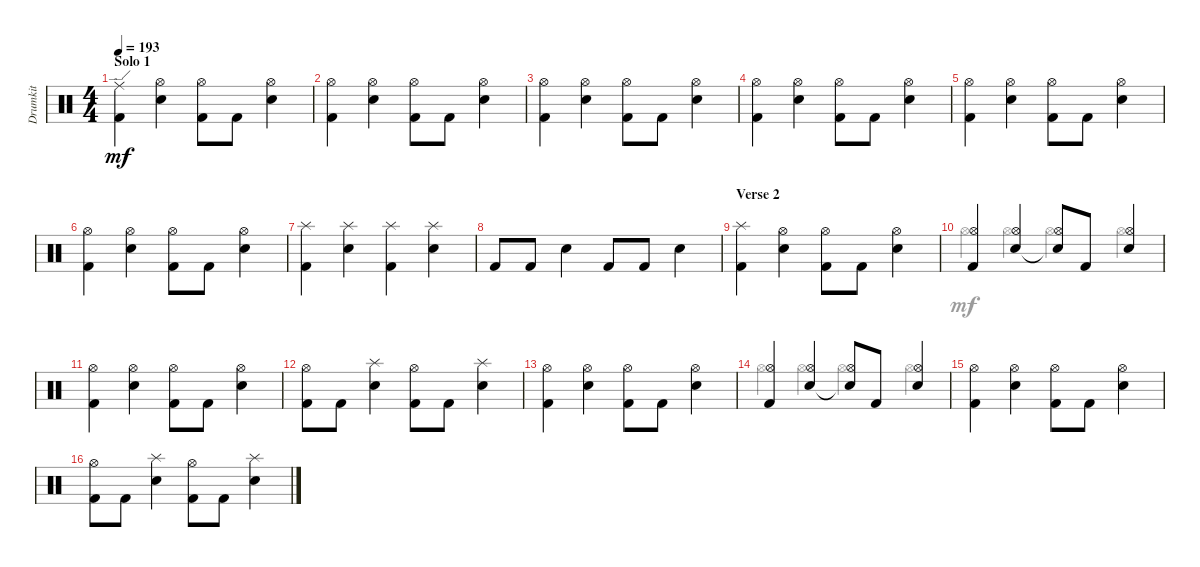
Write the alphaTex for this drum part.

\track ("Drumkit" "Drumkit") {instrument percussion}
\staff {score}
\articulation defaults
\voice
\ts (4 4)
\section ("" "Solo 1")
\tempo 193
\clef neutral
\ks c
("Kick (hit) 2" "Ride (edge)").4{dy mf} ("Snare (hit) 2" "Hi-Hat (open)").4 ("Kick (hit) 2" "Hi-Hat (open)").8 "Kick (hit) 2".8 ("Snare (hit) 2" "Hi-Hat (open)").4 |
("Kick (hit) 2" "Hi-Hat (open)").4 ("Snare (hit) 2" "Hi-Hat (open)").4 ("Kick (hit) 2" "Hi-Hat (open)").8 "Kick (hit) 2".8 ("Snare (hit) 2" "Hi-Hat (open)").4 |
("Kick (hit) 2" "Hi-Hat (open)").4 ("Snare (hit) 2" "Hi-Hat (open)").4 ("Kick (hit) 2" "Hi-Hat (open)").8 "Kick (hit) 2".8 ("Snare (hit) 2" "Hi-Hat (open)").4 |
("Kick (hit) 2" "Hi-Hat (open)").4 ("Snare (hit) 2" "Hi-Hat (open)").4 ("Kick (hit) 2" "Hi-Hat (open)").8 "Kick (hit) 2".8 ("Snare (hit) 2" "Hi-Hat (open)").4 |
("Kick (hit) 2" "Hi-Hat (open)").4 ("Snare (hit) 2" "Hi-Hat (open)").4 ("Kick (hit) 2" "Hi-Hat (open)").8 "Kick (hit) 2".8 ("Snare (hit) 2" "Hi-Hat (open)").4 |
("Kick (hit) 2" "Hi-Hat (open)").4 ("Snare (hit) 2" "Hi-Hat (open)").4 ("Kick (hit) 2" "Hi-Hat (open)").8 "Kick (hit) 2".8 ("Snare (hit) 2" "Hi-Hat (open)").4 |
("Kick (hit) 2" "Splash (hit)").4 ("Splash (hit)" "Snare (hit) 2").4 ("Kick (hit) 2" "Splash (hit)").4 ("Snare (hit) 2" "Splash (hit)").4 |
"Kick (hit) 2".8 "Kick (hit) 2".8 "Snare (hit) 2".4 "Kick (hit) 2".8 "Kick (hit) 2".8 "Snare (hit) 2".4 |
\section ("" "Verse 2")
("Kick (hit) 2" "Splash (hit)").4 ("Snare (hit) 2" "Hi-Hat (open)").4 ("Kick (hit) 2" "Hi-Hat (open)").8 "Kick (hit) 2".8 ("Snare (hit) 2" "Hi-Hat (open)").4 |
("Kick (hit) 2" "Hi-Hat (open)").4 ("Snare (hit) 2" "Hi-Hat (open)").4 ("Snare (hit) 2"{t} "Hi-Hat (open)").8 "Kick (hit) 2".8 ("Snare (hit) 2" "Hi-Hat (open)").4 |
("Kick (hit) 2" "Hi-Hat (open)").4 ("Snare (hit) 2" "Hi-Hat (open)").4 ("Kick (hit) 2" "Hi-Hat (open)").8 "Kick (hit) 2".8 ("Snare (hit) 2" "Hi-Hat (open)").4 |
("Kick (hit) 2" "Hi-Hat (open)").8 "Kick (hit) 2".8 ("Snare (hit) 2" "Splash (hit)").4 ("Kick (hit) 2" "Hi-Hat (open)").8 "Kick (hit) 2".8 ("Snare (hit) 2" "Splash (hit)").4 |
("Kick (hit) 2" "Hi-Hat (open)").4 ("Snare (hit) 2" "Hi-Hat (open)").4 ("Kick (hit) 2" "Hi-Hat (open)").8 "Kick (hit) 2".8 ("Snare (hit) 2" "Hi-Hat (open)").4 |
("Kick (hit) 2" "Hi-Hat (open)").4 ("Snare (hit) 2" "Hi-Hat (open)").4 ("Snare (hit) 2"{t} "Hi-Hat (open)").8 "Kick (hit) 2".8 ("Snare (hit) 2" "Hi-Hat (open)").4 |
("Kick (hit) 2" "Hi-Hat (open)").4 ("Snare (hit) 2" "Hi-Hat (open)").4 ("Kick (hit) 2" "Hi-Hat (open)").8 "Kick (hit) 2".8 ("Snare (hit) 2" "Hi-Hat (open)").4 |
("Kick (hit) 2" "Hi-Hat (open)").8 "Kick (hit) 2".8 ("Snare (hit) 2" "Splash (hit)").4 ("Kick (hit) 2" "Hi-Hat (open)").8 "Kick (hit) 2".8 ("Snare (hit) 2" "Splash (hit)").4
\voice
\clef neutral
\ottava regular
\simile none
\ks c
|
|
|
|
|
|
|
|
|
"Hi-Hat (open)".4 "Hi-Hat (open)".4 "Hi-Hat (open)".4 "Hi-Hat (open)".4 |
|
|
|
"Hi-Hat (open)".4 "Hi-Hat (open)".4 "Hi-Hat (open)".4 "Hi-Hat (open)".4 |
|
